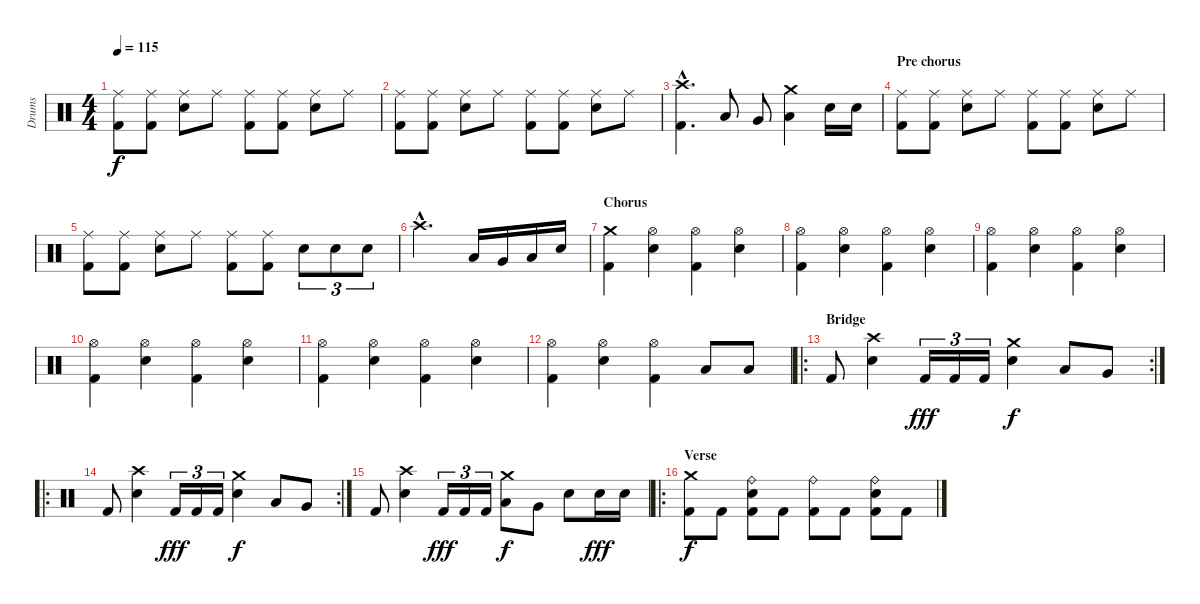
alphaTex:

\track ("Drums" "Drums") {instrument percussion}
\staff {score}
\articulation defaults
\ts (4 4)
\tempo 115
\clef neutral
\ks c
("Ride (middle)" "Kick (hit) 2").8{dy f} ("Ride (middle)" "Kick (hit) 2").8 ("Ride (middle)" "Electric Snare (hit)").8 "Ride (middle)".8 ("Ride (middle)" "Kick (hit) 2").8 ("Ride (middle)" "Kick (hit) 2").8 ("Ride (middle)" "Electric Snare (hit)").8 "Ride (middle)".8 |
("Ride (middle)" "Kick (hit) 2").8 ("Ride (middle)" "Kick (hit) 2").8 ("Ride (middle)" "Electric Snare (hit)").8 "Ride (middle)".8 ("Ride (middle)" "Kick (hit) 2").8 ("Ride (middle)" "Kick (hit) 2").8 ("Ride (middle)" "Electric Snare (hit)").8 "Ride (middle)".8 |
("Crash high (hit)"{hac} "Kick (hit) 2"{hac}).4{d} "Low Tom (hit)".8 "Very Low Tom (hit)".8 ("Crash medium (hit)" "Low Floor Tom (hit)").4 "Electric Snare (hit)".16 "Electric Snare (hit)".16 |
\section ("" "Pre chorus")
("Ride (middle)" "Kick (hit) 2").8 ("Ride (middle)" "Kick (hit) 2").8 ("Ride (middle)" "Electric Snare (hit)").8 "Ride (middle)".8 ("Ride (middle)" "Kick (hit) 2").8 ("Ride (middle)" "Kick (hit) 2").8 ("Ride (middle)" "Electric Snare (hit)").8 "Ride (middle)".8 |
("Ride (middle)" "Kick (hit) 2").8 ("Ride (middle)" "Kick (hit) 2").8 ("Ride (middle)" "Electric Snare (hit)").8 "Ride (middle)".8 ("Ride (middle)" "Kick (hit) 2").8 ("Ride (middle)" "Kick (hit) 2").8 "Electric Snare (hit)".8{tu (3 2)} "Electric Snare (hit)".8{tu (3 2)} "Electric Snare (hit)".8{tu (3 2)} |
"Crash high (hit)"{hac}.2{d} "Low Tom (hit)".16 "Very Low Tom (hit)".16 "Low Floor Tom (hit)".16 "Electric Snare (hit)".16 |
\section ("" "Chorus")
("Crash medium (hit)" "Kick (hit) 2").4 ("Hi-Hat (open)" "Electric Snare (hit)").4 ("Hi-Hat (open)" "Kick (hit) 2").4 ("Hi-Hat (open)" "Electric Snare (hit)").4 |
("Hi-Hat (open)" "Kick (hit) 2").4 ("Hi-Hat (open)" "Electric Snare (hit)").4 ("Hi-Hat (open)" "Kick (hit) 2").4 ("Hi-Hat (open)" "Electric Snare (hit)").4 |
("Hi-Hat (open)" "Kick (hit) 2").4 ("Hi-Hat (open)" "Electric Snare (hit)").4 ("Hi-Hat (open)" "Kick (hit) 2").4 ("Hi-Hat (open)" "Electric Snare (hit)").4 |
("Hi-Hat (open)" "Kick (hit) 2").4 ("Hi-Hat (open)" "Electric Snare (hit)").4 ("Hi-Hat (open)" "Kick (hit) 2").4 ("Hi-Hat (open)" "Electric Snare (hit)").4 |
("Hi-Hat (open)" "Kick (hit) 2").4 ("Hi-Hat (open)" "Electric Snare (hit)").4 ("Hi-Hat (open)" "Kick (hit) 2").4 ("Hi-Hat (open)" "Electric Snare (hit)").4 |
("Hi-Hat (open)" "Kick (hit) 2").4 ("Hi-Hat (open)" "Electric Snare (hit)").4 ("Hi-Hat (open)" "Kick (hit) 2").4 "Low Floor Tom (hit)".8 "Low Floor Tom (hit)".8 |
\ro
\rc 2
\section ("" "Bridge")
"Kick (hit) 2".8 ("Crash high (hit)" "Electric Snare (hit)").4 "Kick (hit) 2".16{tu (3 2) dy fff} "Kick (hit) 2".16{tu (3 2)} "Kick (hit) 2".16{tu (3 2)} ("Crash medium (hit)" "Electric Snare (hit)").4{dy f} "Low Floor Tom (hit)".8 "Very Low Tom (hit)".8 |
\ro
\rc 2 "Kick (hit) 2".8
("Crash high (hit)" "Electric Snare (hit)").4 "Kick (hit) 2".16{tu (3 2) dy fff} "Kick (hit) 2".16{tu (3 2)} "Kick (hit) 2".16{tu (3 2)} ("Crash medium (hit)" "Electric Snare (hit)").4{dy f} "Low Floor Tom (hit)".8 "Very Low Tom (hit)".8 |
"Kick (hit) 2".8 ("Crash high (hit)" "Electric Snare (hit)").4 "Kick (hit) 2".16{tu (3 2) dy fff} "Kick (hit) 2".16{tu (3 2)} "Kick (hit) 2".16{tu (3 2)} ("Crash medium (hit)" "Low Floor Tom (hit)").8{dy f} "Very Low Tom (hit)".8 "Electric Snare (hit)".8 "Electric Snare (hit)".16{dy fff} "Electric Snare (hit)".16 |
\ro
\section ("" "Verse")
("Crash medium (hit)" "Kick (hit) 2").8{dy f} "Kick (hit) 2".8 ("Ride (bell)" "Kick (hit) 2" "Electric Snare (hit)").8 "Kick (hit) 2".8 ("Ride (bell)" "Kick (hit) 2").8 "Kick (hit) 2".8 ("Ride (bell)" "Kick (hit) 2" "Electric Snare (hit)").8 "Kick (hit) 2".8
